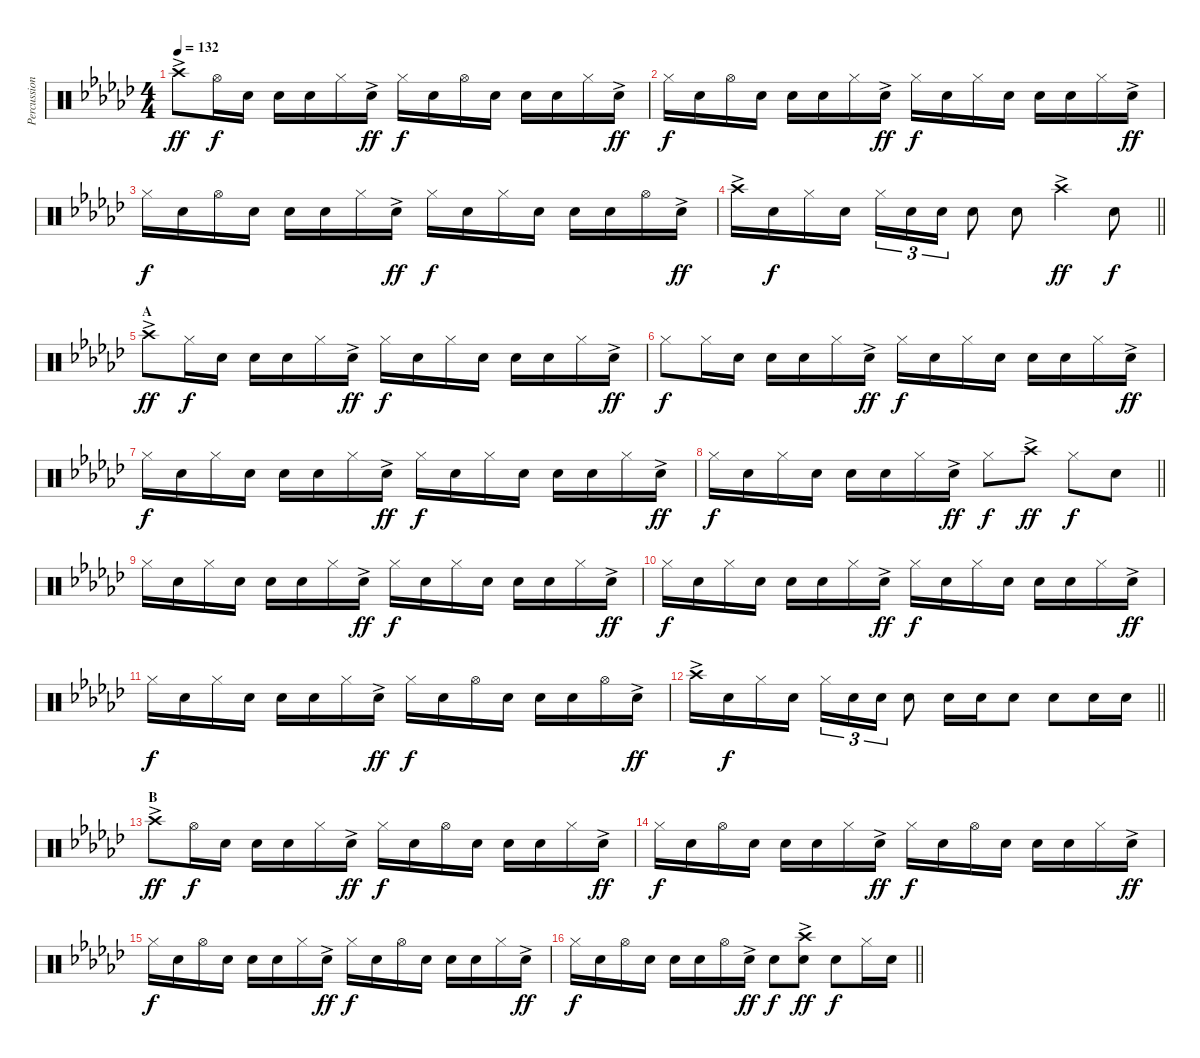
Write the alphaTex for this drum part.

\track ("Percussion hand" "Percussion") {instrument percussion}
\staff {score}
\articulation defaults
\ts (4 4)
\tempo 132
\clef neutral
\ks gb "Crash high (hit)"{ac}.8{dy ff} "Hi-Hat (open)".16{dy f} "Snare (hit) 2".16 "Snare (hit) 2".16 "Snare (hit) 2".16 "Hi-Hat (closed)".16 "Snare (hit) 2"{ac}.16{dy ff} "Hi-Hat (closed)".16{dy f} "Snare (hit) 2".16 "Hi-Hat (open)".16 "Snare (hit) 2".16 "Snare (hit) 2".16 "Snare (hit) 2".16 "Hi-Hat (closed)".16 "Snare (hit) 2"{ac}.16{dy ff}
|
"Hi-Hat (closed)".16{dy f} "Snare (hit) 2".16 "Hi-Hat (open)".16 "Snare (hit) 2".16 "Snare (hit) 2".16 "Snare (hit) 2".16 "Hi-Hat (closed)".16 "Snare (hit) 2"{ac}.16{dy ff} "Hi-Hat (closed)".16{dy f} "Snare (hit) 2".16 "Hi-Hat (closed)".16 "Snare (hit) 2".16 "Snare (hit) 2".16 "Snare (hit) 2".16 "Hi-Hat (closed)".16 "Snare (hit) 2"{ac}.16{dy ff} |
"Hi-Hat (closed)".16{dy f} "Snare (hit) 2".16 "Hi-Hat (open)".16 "Snare (hit) 2".16 "Snare (hit) 2".16 "Snare (hit) 2".16 "Hi-Hat (closed)".16 "Snare (hit) 2"{ac}.16{dy ff} "Hi-Hat (closed)".16{dy f} "Snare (hit) 2".16 "Hi-Hat (closed)".16 "Snare (hit) 2".16 "Snare (hit) 2".16 "Snare (hit) 2".16 "Hi-Hat (open)".16 "Snare (hit) 2"{ac}.16{dy ff} |
\barLineRight lightlight "Crash high (hit)"{ac}.16 "Snare (hit) 2".16{dy f} "Hi-Hat (closed)".16 "Snare (hit) 2".16 "Hi-Hat (closed)".16{tu (3 2)} "Snare (hit) 2".16{tu (3 2)} "Snare (hit) 2".16{tu (3 2)} "Snare (hit) 2".8 "Snare (hit) 2".8 "Crash high (hit)"{ac}.4{dy ff} "Snare (hit) 2".8{dy f}
|
\section ("" "A")
"Crash high (hit)"{ac}.8{dy ff} "Hi-Hat (closed)".16{dy f} "Snare (hit) 2".16 "Snare (hit) 2".16 "Snare (hit) 2".16 "Hi-Hat (closed)".16 "Snare (hit) 2"{ac}.16{dy ff} "Hi-Hat (closed)".16{dy f} "Snare (hit) 2".16 "Hi-Hat (closed)".16 "Snare (hit) 2".16 "Snare (hit) 2".16 "Snare (hit) 2".16 "Hi-Hat (closed)".16 "Snare (hit) 2"{ac}.16{dy ff} |
"Hi-Hat (closed)".8{dy f} "Hi-Hat (closed)".16 "Snare (hit) 2".16 "Snare (hit) 2".16 "Snare (hit) 2".16 "Hi-Hat (closed)".16 "Snare (hit) 2"{ac}.16{dy ff} "Hi-Hat (closed)".16{dy f} "Snare (hit) 2".16 "Hi-Hat (closed)".16 "Snare (hit) 2".16 "Snare (hit) 2".16 "Snare (hit) 2".16 "Hi-Hat (closed)".16 "Snare (hit) 2"{ac}.16{dy ff} |
"Hi-Hat (closed)".16{dy f} "Snare (hit) 2".16 "Hi-Hat (closed)".16 "Snare (hit) 2".16 "Snare (hit) 2".16 "Snare (hit) 2".16 "Hi-Hat (closed)".16 "Snare (hit) 2"{ac}.16{dy ff} "Hi-Hat (closed)".16{dy f} "Snare (hit) 2".16 "Hi-Hat (closed)".16 "Snare (hit) 2".16 "Snare (hit) 2".16 "Snare (hit) 2".16 "Hi-Hat (closed)".16 "Snare (hit) 2"{ac}.16{dy ff} |
\barLineRight lightlight "Hi-Hat (closed)".16{dy f} "Snare (hit) 2".16 "Hi-Hat (closed)".16 "Snare (hit) 2".16 "Snare (hit) 2".16 "Snare (hit) 2".16 "Hi-Hat (closed)".16 "Snare (hit) 2"{ac}.16{dy ff} "Hi-Hat (closed)".8{dy f} "Crash high (hit)"{ac}.8{dy ff} "Hi-Hat (closed)".8{dy f} "Snare (hit) 2".8
|
"Hi-Hat (closed)".16 "Snare (hit) 2".16 "Hi-Hat (closed)".16 "Snare (hit) 2".16 "Snare (hit) 2".16 "Snare (hit) 2".16 "Hi-Hat (closed)".16 "Snare (hit) 2"{ac}.16{dy ff} "Hi-Hat (closed)".16{dy f} "Snare (hit) 2".16 "Hi-Hat (closed)".16 "Snare (hit) 2".16 "Snare (hit) 2".16 "Snare (hit) 2".16 "Hi-Hat (closed)".16 "Snare (hit) 2"{ac}.16{dy ff} |
"Hi-Hat (closed)".16{dy f} "Snare (hit) 2".16 "Hi-Hat (closed)".16 "Snare (hit) 2".16 "Snare (hit) 2".16 "Snare (hit) 2".16 "Hi-Hat (closed)".16 "Snare (hit) 2"{ac}.16{dy ff} "Hi-Hat (closed)".16{dy f} "Snare (hit) 2".16 "Hi-Hat (closed)".16 "Snare (hit) 2".16 "Snare (hit) 2".16 "Snare (hit) 2".16 "Hi-Hat (closed)".16 "Snare (hit) 2"{ac}.16{dy ff} |
"Hi-Hat (closed)".16{dy f} "Snare (hit) 2".16 "Hi-Hat (closed)".16 "Snare (hit) 2".16 "Snare (hit) 2".16 "Snare (hit) 2".16 "Hi-Hat (closed)".16 "Snare (hit) 2"{ac}.16{dy ff} "Hi-Hat (closed)".16{dy f} "Snare (hit) 2".16 "Hi-Hat (open)".16 "Snare (hit) 2".16 "Snare (hit) 2".16 "Snare (hit) 2".16 "Hi-Hat (open)".16 "Snare (hit) 2"{ac}.16{dy ff} |
\barLineRight lightlight "Crash high (hit)"{ac}.16 "Snare (hit) 2".16{dy f} "Hi-Hat (closed)".16 "Snare (hit) 2".16 "Hi-Hat (closed)".16{tu (3 2)} "Snare (hit) 2".16{tu (3 2)} "Snare (hit) 2".16{tu (3 2)} "Snare (hit) 2".8 "Snare (hit) 2".16 "Snare (hit) 2".16 "Snare (hit) 2".8 "Snare (hit) 2".8 "Snare (hit) 2".16 "Snare (hit) 2".16
|
\section ("" "B")
"Crash high (hit)"{ac}.8{dy ff} "Hi-Hat (open)".16{dy f} "Snare (hit) 2".16 "Snare (hit) 2".16 "Snare (hit) 2".16 "Hi-Hat (closed)".16 "Snare (hit) 2"{ac}.16{dy ff} "Hi-Hat (closed)".16{dy f} "Snare (hit) 2".16 "Hi-Hat (open)".16 "Snare (hit) 2".16 "Snare (hit) 2".16 "Snare (hit) 2".16 "Hi-Hat (closed)".16 "Snare (hit) 2"{ac}.16{dy ff} |
"Hi-Hat (closed)".16{dy f} "Snare (hit) 2".16 "Hi-Hat (open)".16 "Snare (hit) 2".16 "Snare (hit) 2".16 "Snare (hit) 2".16 "Hi-Hat (closed)".16 "Snare (hit) 2"{ac}.16{dy ff} "Hi-Hat (closed)".16{dy f} "Snare (hit) 2".16 "Hi-Hat (open)".16 "Snare (hit) 2".16 "Snare (hit) 2".16 "Snare (hit) 2".16 "Hi-Hat (closed)".16 "Snare (hit) 2"{ac}.16{dy ff} |
"Hi-Hat (closed)".16{dy f} "Snare (hit) 2".16 "Hi-Hat (open)".16 "Snare (hit) 2".16 "Snare (hit) 2".16 "Snare (hit) 2".16 "Hi-Hat (closed)".16 "Snare (hit) 2"{ac}.16{dy ff} "Hi-Hat (closed)".16{dy f} "Snare (hit) 2".16 "Hi-Hat (open)".16 "Snare (hit) 2".16 "Snare (hit) 2".16 "Snare (hit) 2".16 "Hi-Hat (closed)".16 "Snare (hit) 2"{ac}.16{dy ff} |
\barLineRight lightlight "Hi-Hat (closed)".16{dy f} "Snare (hit) 2".16 "Hi-Hat (open)".16 "Snare (hit) 2".16 "Snare (hit) 2".16 "Snare (hit) 2".16 "Hi-Hat (open)".16 "Snare (hit) 2"{ac}.16{dy ff} "Snare (hit) 2".8{dy f}
("Crash high (hit)" "Snare (hit) 2"{ac}).8{dy ff} "Snare (hit) 2".8{dy f} "Hi-Hat (closed)".16 "Snare (hit) 2".16
